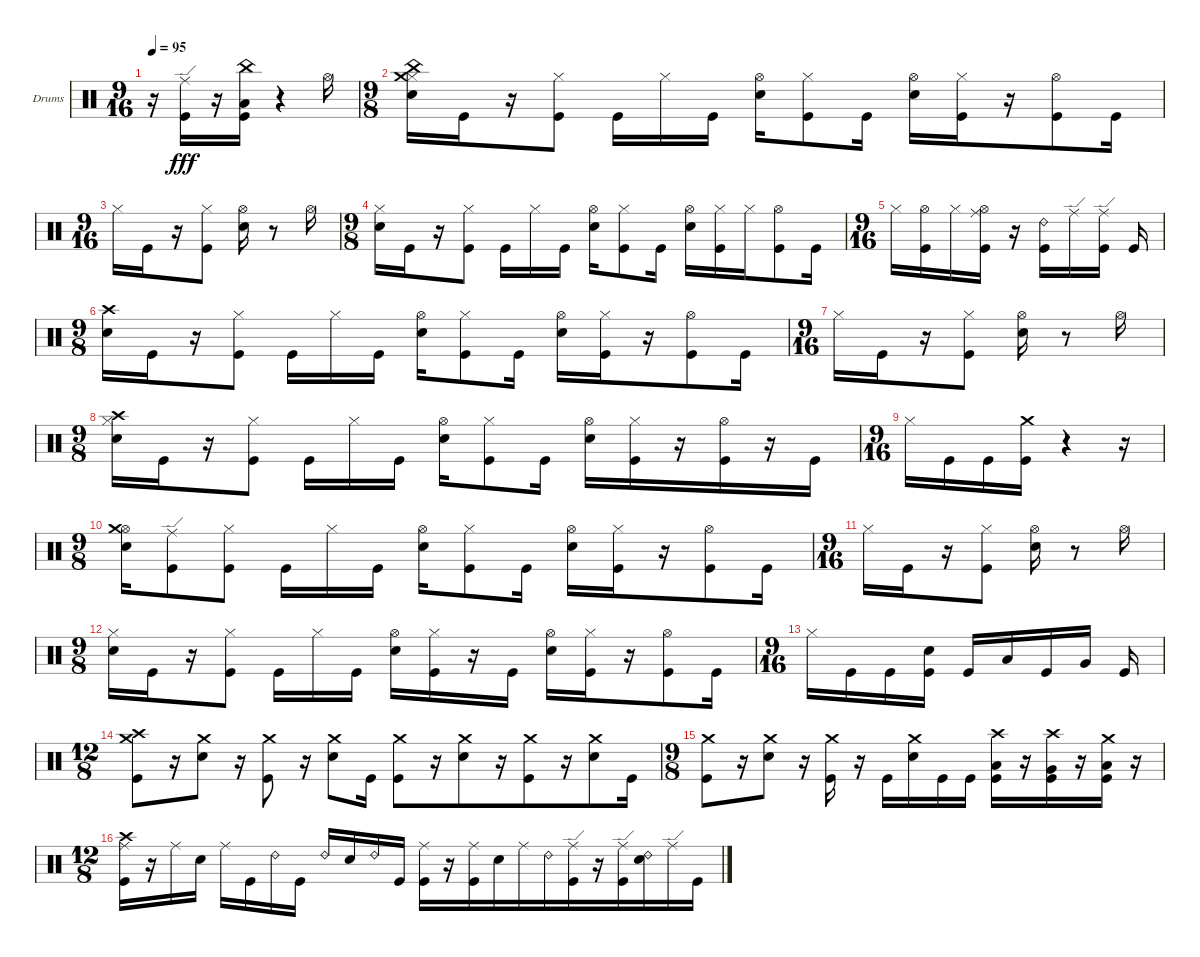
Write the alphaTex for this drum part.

\bracketExtendMode groupsimilarinstruments
\firstSystemTrackNameOrientation horizontal
\otherSystemsTrackNameOrientation horizontal
\track ("Drumkit" "Drums") {instrument percussion}
\staff {score}
\articulation defaults
\ts (9 16)
\beaming (8 2 2 2 2)
\tempo 95
\clef neutral
\ks c
r.16{dy fff} ("Kick (hit)" "Ride (edge)").16 r.16 ("Kick (hit)" "Low Tom (hit)" "China (hit)").16 r.4 "Hi-Hat (open)".16 |
\ts (9 8)
\beaming (8 2 2 2 3)
("Hi-Hat (closed)" "Snare (hit) 2" "Crash medium (hit)" "China (hit)").16 "Kick (hit)".16 r.16 ("Kick (hit)" "Hi-Hat (closed)").8 "Kick (hit)".16 "Hi-Hat (closed)".16 "Kick (hit)".16 ("Snare (hit) 2" "Hi-Hat (open)").16 ("Kick (hit)" "Hi-Hat (closed)").8 "Kick (hit)".16 ("Snare (hit) 2" "Hi-Hat (open)").16 ("Kick (hit)" "Hi-Hat (closed)").16 r.16 ("Hi-Hat (open)" "Kick (hit)").8 "Kick (hit)".16 |
\ts (9 16)
\beaming (8 2 2 2 2)
"Hi-Hat (closed)".16 "Kick (hit)".16 r.16 ("Kick (hit)" "Hi-Hat (closed)").8 ("Hi-Hat (open)" "Snare (hit) 2").16 r.8 "Hi-Hat (open)".16 |
\ts (9 8)
\beaming (8 2 2 2 3)
("Snare (hit) 2" "Hi-Hat (closed)").16 "Kick (hit)".16 r.16 ("Kick (hit)" "Hi-Hat (closed)").8 "Kick (hit)".16 "Hi-Hat (closed)".16 "Kick (hit)".16 ("Snare (hit) 2" "Hi-Hat (open)").16 ("Kick (hit)" "Hi-Hat (closed)").8 "Kick (hit)".16 ("Snare (hit) 2" "Hi-Hat (open)").16 ("Kick (hit)" "Hi-Hat (closed)").16 "Hi-Hat (closed)".16 ("Hi-Hat (open)" "Kick (hit)").8 "Kick (hit)".16 |
\ts (9 16)
\beaming (8 2 2 2 2)
"Hi-Hat (closed)".16 ("Kick (hit)" "Hi-Hat (open)").16 "Hi-Hat (closed)".16 ("Kick (hit)" "Hi-Hat (open)" "Ride (middle)").16 r.16 ("Ride (bell) 2" "Kick (hit)").16 "Ride (edge)".16 ("Kick (hit)" "Ride (edge)").16 "Kick (hit)".16 |
\ts (9 8)
\beaming (8 2 2 2 3)
("Snare (hit) 2" "Crash high (hit)").16 "Kick (hit)".16 r.16 ("Kick (hit)" "Hi-Hat (closed)").8 "Kick (hit)".16 "Hi-Hat (closed)".16 "Kick (hit)".16 ("Snare (hit) 2" "Hi-Hat (open)").16 ("Kick (hit)" "Hi-Hat (closed)").8 "Kick (hit)".16 ("Snare (hit) 2" "Hi-Hat (open)").16 ("Kick (hit)" "Hi-Hat (closed)").16 r.16 ("Hi-Hat (open)" "Kick (hit)").8 "Kick (hit)".16 |
\ts (9 16)
\beaming (8 2 2 2 2)
"Hi-Hat (closed)".16 "Kick (hit)".16 r.16 ("Kick (hit)" "Hi-Hat (closed)").8 ("Hi-Hat (open)" "Snare (hit) 2").16 r.8 "Hi-Hat (open)".16 |
\ts (9 8)
\beaming (8 2 2 2 3)
("Snare (hit) 2" "Hi-Hat (closed)" "Crash high (hit)").16 "Kick (hit)".16 r.16 ("Kick (hit)" "Hi-Hat (closed)").8 "Kick (hit)".16 "Hi-Hat (closed)".16 "Kick (hit)".16 ("Snare (hit) 2" "Hi-Hat (open)").16 ("Kick (hit)" "Hi-Hat (closed)").8 "Kick (hit)".16 ("Snare (hit) 2" "Hi-Hat (open)").16 ("Kick (hit)" "Hi-Hat (closed)").16 r.16 ("Hi-Hat (open)" "Kick (hit)").16 r.16 "Kick (hit)".16 |
\ts (9 16)
\beaming (8 2 2 2 2)
"Hi-Hat (closed)".16 "Kick (hit)".16 "Kick (hit)".16 ("Kick (hit)" "Crash medium (hit)").16 r.4 r.16 |
\ts (9 8)
\beaming (8 2 2 2 3)
("Snare (hit) 2" "Hi-Hat (open)" "Crash medium (hit)").16 ("Kick (hit)" "Ride (edge)").8 ("Kick (hit)" "Hi-Hat (closed)").8 "Kick (hit)".16 "Hi-Hat (closed)".16 "Kick (hit)".16 ("Snare (hit) 2" "Hi-Hat (open)").16 ("Kick (hit)" "Hi-Hat (closed)").8 "Kick (hit)".16 ("Snare (hit) 2" "Hi-Hat (open)").16 ("Kick (hit)" "Hi-Hat (closed)").16 r.16 ("Hi-Hat (open)" "Kick (hit)").8 "Kick (hit)".16 |
\ts (9 16)
\beaming (8 2 2 2 2)
"Hi-Hat (closed)".16 "Kick (hit)".16 r.16 ("Kick (hit)" "Hi-Hat (closed)").8 ("Hi-Hat (open)" "Snare (hit) 2").16 r.8 "Hi-Hat (open)".16 |
\ts (9 8)
\beaming (8 2 2 2 3)
("Snare (hit) 2" "Hi-Hat (closed)").16 "Kick (hit)".16 r.16 ("Kick (hit)" "Hi-Hat (closed)").8 "Kick (hit)".16 "Hi-Hat (closed)".16 "Kick (hit)".16 ("Snare (hit) 2" "Hi-Hat (open)").16 ("Kick (hit)" "Hi-Hat (closed)").16 r.16 "Kick (hit)".16 ("Snare (hit) 2" "Hi-Hat (open)").16 ("Kick (hit)" "Hi-Hat (closed)").16 r.16 ("Hi-Hat (open)" "Kick (hit)").8 "Kick (hit)".16 |
\ts (9 16)
\beaming (8 2 2 2 2)
"Hi-Hat (closed)".16 "Kick (hit)".16 "Kick (hit)".16 ("Kick (hit)" "Snare (hit) 2").16 "Kick (hit)".16 "Low Tom (hit)".16 "Kick (hit)".16 "Very Low Tom (hit)".16 "Kick (hit)".16 |
\ts (12 8)
\beaming (8 2 2 2 6)
("Kick (hit)" "Crash medium (hit)" "Crash high (hit)").8 r.16 ("Snare (hit) 2" "Crash medium (hit)").8 r.16 ("Kick (hit)" "Crash medium (hit)").8 r.16 ("Snare (hit) 2" "Crash medium (hit)").8 "Kick (hit)".16 ("Kick (hit)" "Crash medium (hit)").8 r.16 ("Snare (hit) 2" "Crash medium (hit)").8 r.16 ("Kick (hit)" "Crash medium (hit)").8 r.16 ("Snare (hit) 2" "Crash medium (hit)").8 "Kick (hit)".16 |
\ts (9 8)
\beaming (8 2 2 2 3)
("Kick (hit)" "Crash medium (hit)").8 r.16 ("Snare (hit) 2" "Crash medium (hit)").8 r.16 ("Kick (hit)" "Crash medium (hit)").16 r.16 "Kick (hit)".16 ("Snare (hit) 2" "Crash medium (hit)").16 "Kick (hit)".16 "Kick (hit)".16 ("Kick (hit)" "Low Tom (hit)" "Crash high (hit)").16 r.16 ("Kick (hit)" "Very Low Tom (hit)" "Crash high (hit)").16 r.16 ("Low Tom (hit)" "Kick (hit)" "Crash medium (hit)").16 r.16 |
\ts (12 8)
\beaming (8 2 2 2 6)
("Ride (middle)" "Kick (hit)" "Crash high (hit)").16 r.16 "Ride (middle)".16 "Snare (hit) 2".16 "Ride (middle)".16 "Kick (hit)".16 "Ride (bell) 2".16 "Kick (hit)".16 "Ride (bell) 2".16 "Snare (hit) 2".16 "Ride (bell) 2".16 "Kick (hit)".16 ("Ride (middle)" "Kick (hit)").16 r.16 ("Ride (middle)" "Kick (hit)").16 "Snare (hit) 2".16 "Ride (middle)".16 "Ride (bell) 2".16 ("Kick (hit)" "Ride (edge)").16 r.16 ("Kick (hit)" "Ride (edge)").16 ("Snare (hit) 2" "Ride (bell) 2").16 "Ride (edge)".16 "Kick (hit)".16
